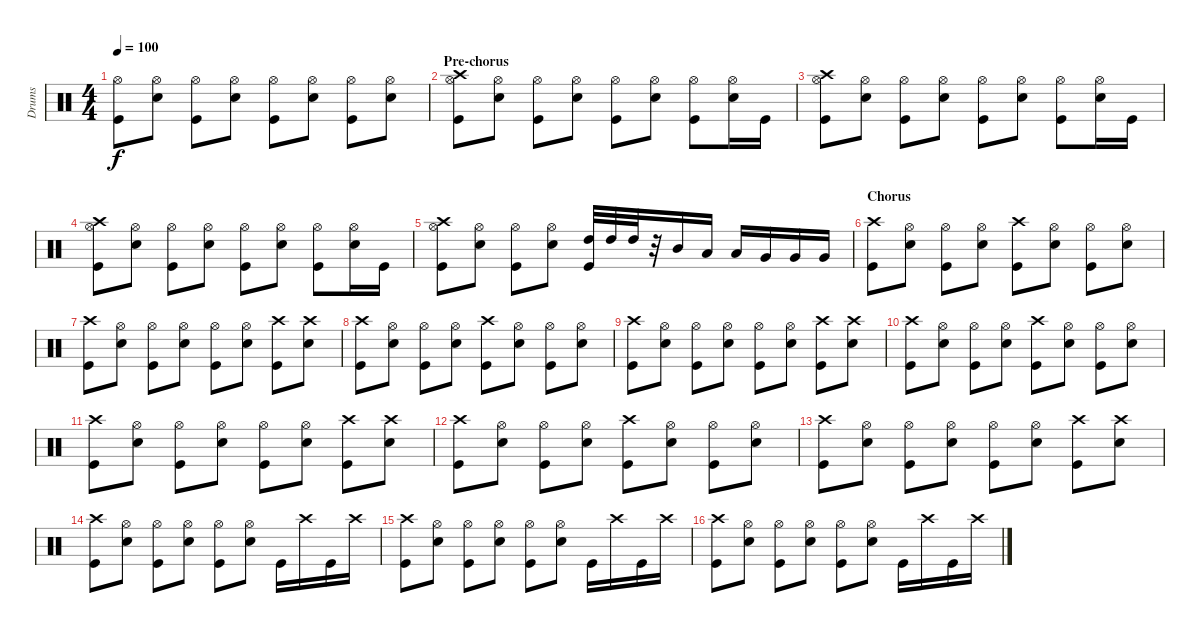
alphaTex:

\track ("Drums" "Drums") {instrument percussion}
\staff {score}
\articulation defaults
\ts (4 4)
\tempo 100
\clef neutral
\ks c
("Hi-Hat (open)" "Kick (hit)").8{dy f} ("Hi-Hat (open)" "Snare (hit) 2").8 ("Hi-Hat (open)" "Kick (hit)").8 ("Hi-Hat (open)" "Snare (hit) 2").8 ("Hi-Hat (open)" "Kick (hit)").8 ("Hi-Hat (open)" "Snare (hit) 2").8 ("Hi-Hat (open)" "Kick (hit)").8 ("Hi-Hat (open)" "Snare (hit) 2").8 |
\section ("" "Pre-chorus")
("Hi-Hat (open)" "Crash high (hit)" "Kick (hit)").8 ("Hi-Hat (open)" "Snare (hit) 2").8 ("Hi-Hat (open)" "Kick (hit)").8 ("Hi-Hat (open)" "Snare (hit) 2").8 ("Hi-Hat (open)" "Kick (hit)").8 ("Hi-Hat (open)" "Snare (hit) 2").8 ("Hi-Hat (open)" "Kick (hit)").8 ("Hi-Hat (open)" "Snare (hit) 2").16 "Kick (hit)".16 |
("Hi-Hat (open)" "Crash high (hit)" "Kick (hit)").8 ("Hi-Hat (open)" "Snare (hit) 2").8 ("Hi-Hat (open)" "Kick (hit)").8 ("Hi-Hat (open)" "Snare (hit) 2").8 ("Hi-Hat (open)" "Kick (hit)").8 ("Hi-Hat (open)" "Snare (hit) 2").8 ("Hi-Hat (open)" "Kick (hit)").8 ("Hi-Hat (open)" "Snare (hit) 2").16 "Kick (hit)".16 |
("Hi-Hat (open)" "Crash high (hit)" "Kick (hit)").8 ("Hi-Hat (open)" "Snare (hit) 2").8 ("Hi-Hat (open)" "Kick (hit)").8 ("Hi-Hat (open)" "Snare (hit) 2").8 ("Hi-Hat (open)" "Kick (hit)").8 ("Hi-Hat (open)" "Snare (hit) 2").8 ("Hi-Hat (open)" "Kick (hit)").8 ("Hi-Hat (open)" "Snare (hit) 2").16 "Kick (hit)".16 |
("Hi-Hat (open)" "Crash high (hit)" "Kick (hit)").8 ("Hi-Hat (open)" "Snare (hit) 2").8 ("Hi-Hat (open)" "Kick (hit)").8 ("Hi-Hat (open)" "Snare (hit) 2").8 ("High Tom (hit)" "Kick (hit)").32 "High Tom (hit)".32 "High Tom (hit)".32 r.32 "Mid Tom (hit)".16 "Low Tom (hit)".16 "Low Tom (hit)".16 "Very Low Tom (hit)".16 "Very Low Tom (hit)".16 "Very Low Tom (hit)".16 |
\section ("" "Chorus")
("Crash high (hit)" "Kick (hit)").8 ("Hi-Hat (open)" "Snare (hit) 2").8 ("Hi-Hat (open)" "Kick (hit)").8 ("Hi-Hat (open)" "Snare (hit) 2").8 ("Crash high (hit)" "Kick (hit)").8 ("Hi-Hat (open)" "Snare (hit) 2").8 ("Hi-Hat (open)" "Kick (hit)").8 ("Hi-Hat (open)" "Snare (hit) 2").8 |
("Crash high (hit)" "Kick (hit)").8 ("Hi-Hat (open)" "Snare (hit) 2").8 ("Hi-Hat (open)" "Kick (hit)").8 ("Hi-Hat (open)" "Snare (hit) 2").8 ("Hi-Hat (open)" "Kick (hit)").8 ("Hi-Hat (open)" "Snare (hit) 2").8 ("Crash high (hit)" "Kick (hit)").8 ("Crash high (hit)" "Snare (hit) 2").8 |
("Crash high (hit)" "Kick (hit)").8 ("Hi-Hat (open)" "Snare (hit) 2").8 ("Hi-Hat (open)" "Kick (hit)").8 ("Hi-Hat (open)" "Snare (hit) 2").8 ("Crash high (hit)" "Kick (hit)").8 ("Hi-Hat (open)" "Snare (hit) 2").8 ("Hi-Hat (open)" "Kick (hit)").8 ("Hi-Hat (open)" "Snare (hit) 2").8 |
("Crash high (hit)" "Kick (hit)").8 ("Hi-Hat (open)" "Snare (hit) 2").8 ("Hi-Hat (open)" "Kick (hit)").8 ("Hi-Hat (open)" "Snare (hit) 2").8 ("Hi-Hat (open)" "Kick (hit)").8 ("Hi-Hat (open)" "Snare (hit) 2").8 ("Crash high (hit)" "Kick (hit)").8 ("Crash high (hit)" "Snare (hit) 2").8 |
("Crash high (hit)" "Kick (hit)").8 ("Hi-Hat (open)" "Snare (hit) 2").8 ("Hi-Hat (open)" "Kick (hit)").8 ("Hi-Hat (open)" "Snare (hit) 2").8 ("Crash high (hit)" "Kick (hit)").8 ("Hi-Hat (open)" "Snare (hit) 2").8 ("Hi-Hat (open)" "Kick (hit)").8 ("Hi-Hat (open)" "Snare (hit) 2").8 |
("Crash high (hit)" "Kick (hit)").8 ("Hi-Hat (open)" "Snare (hit) 2").8 ("Hi-Hat (open)" "Kick (hit)").8 ("Hi-Hat (open)" "Snare (hit) 2").8 ("Hi-Hat (open)" "Kick (hit)").8 ("Hi-Hat (open)" "Snare (hit) 2").8 ("Crash high (hit)" "Kick (hit)").8 ("Crash high (hit)" "Snare (hit) 2").8 |
("Crash high (hit)" "Kick (hit)").8 ("Hi-Hat (open)" "Snare (hit) 2").8 ("Hi-Hat (open)" "Kick (hit)").8 ("Hi-Hat (open)" "Snare (hit) 2").8 ("Crash high (hit)" "Kick (hit)").8 ("Hi-Hat (open)" "Snare (hit) 2").8 ("Hi-Hat (open)" "Kick (hit)").8 ("Hi-Hat (open)" "Snare (hit) 2").8 |
("Crash high (hit)" "Kick (hit)").8 ("Hi-Hat (open)" "Snare (hit) 2").8 ("Hi-Hat (open)" "Kick (hit)").8 ("Hi-Hat (open)" "Snare (hit) 2").8 ("Hi-Hat (open)" "Kick (hit)").8 ("Hi-Hat (open)" "Snare (hit) 2").8 ("Crash high (hit)" "Kick (hit)").8 ("Crash high (hit)" "Snare (hit) 2").8 |
("Crash high (hit)" "Kick (hit)").8 ("Hi-Hat (open)" "Snare (hit) 2").8 ("Hi-Hat (open)" "Kick (hit)").8 ("Hi-Hat (open)" "Snare (hit) 2").8 ("Hi-Hat (open)" "Kick (hit)").8 ("Hi-Hat (open)" "Snare (hit) 2").8 "Kick (hit)".16 "Crash high (hit)".16 "Kick (hit)".16 "Crash high (hit)".16 |
("Crash high (hit)" "Kick (hit)").8 ("Hi-Hat (open)" "Snare (hit) 2").8 ("Hi-Hat (open)" "Kick (hit)").8 ("Hi-Hat (open)" "Snare (hit) 2").8 ("Hi-Hat (open)" "Kick (hit)").8 ("Hi-Hat (open)" "Snare (hit) 2").8 "Kick (hit)".16 "Crash high (hit)".16 "Kick (hit)".16 "Crash high (hit)".16 |
("Crash high (hit)" "Kick (hit)").8 ("Hi-Hat (open)" "Snare (hit) 2").8 ("Hi-Hat (open)" "Kick (hit)").8 ("Hi-Hat (open)" "Snare (hit) 2").8 ("Hi-Hat (open)" "Kick (hit)").8 ("Hi-Hat (open)" "Snare (hit) 2").8 "Kick (hit)".16 "Crash high (hit)".16 "Kick (hit)".16 "Crash high (hit)".16
